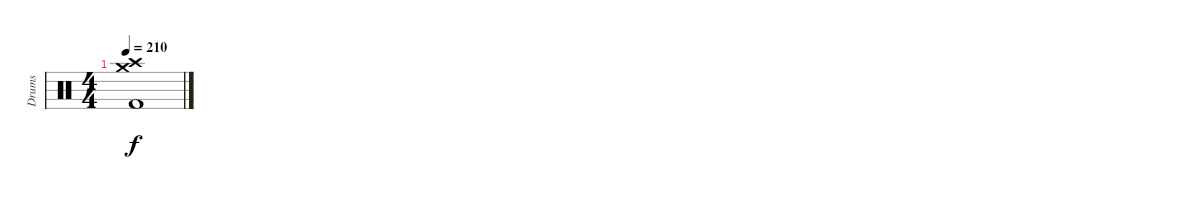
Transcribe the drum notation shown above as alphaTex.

\track ("Drums" "Drums") {instrument percussion}
\staff {score}
\articulation defaults
\ts (4 4)
\tempo 210
\clef neutral
\ks c
("Kick (hit) 2" "Crash high (hit)" "Crash medium (hit)").1{dy f}
